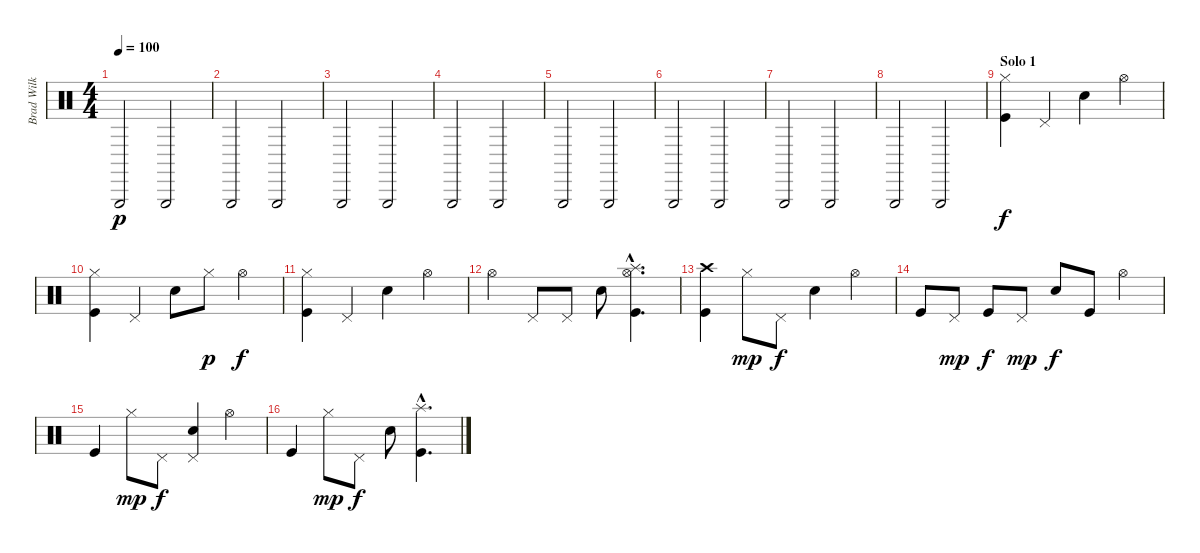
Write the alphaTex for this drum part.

\track ("Brad Wilk - Drums" "Brad Wilk ") {instrument percussion}
\staff {score}
\articulation defaults
\ts (4 4)
\tempo 100
\clef neutral
\ks c "Triangle (hit)".2{dy p} "Triangle (hit)".2
|
"Triangle (hit)".2 "Triangle (hit)".2 |
"Triangle (hit)".2 "Triangle (hit)".2 |
"Triangle (hit)".2 "Triangle (hit)".2 |
"Triangle (hit)".2 "Triangle (hit)".2 |
"Triangle (hit)".2 "Triangle (hit)".2 |
"Triangle (hit)".2 "Triangle (hit)".2 |
"Triangle (hit)".2 "Triangle (hit)".2 |
\section ("" "Solo 1")
("Hi-Hat (closed)" "Kick (hit)").4{dy f} "Pedal Hi-Hat (hit)".4 "Electric Snare (hit)".4 "Hi-Hat (open)".4 |
("Hi-Hat (closed)" "Kick (hit)").4 "Pedal Hi-Hat (hit)".4 "Electric Snare (hit)".8 "Hi-Hat (closed)".8{dy p} "Hi-Hat (open)".4{dy f} |
("Hi-Hat (closed)" "Kick (hit)").4 "Pedal Hi-Hat (hit)".4 "Electric Snare (hit)".4 "Hi-Hat (open)".4 |
"Hi-Hat (open)".4 "Pedal Hi-Hat (hit)".8 "Pedal Hi-Hat (hit)".8 "Electric Snare (hit)".8 ("Hi-Hat (open)"{hac} "Kick (hit)"{hac} "Splash (hit)"{hac}).4{d} |
("Crash high (hit)" "Kick (hit)").4 "Hi-Hat (closed)".8{dy mp} "Pedal Hi-Hat (hit)".8{dy f} "Electric Snare (hit)".4 "Hi-Hat (open)".4 |
"Kick (hit)".8 "Pedal Hi-Hat (hit)".8{dy mp} "Kick (hit)".8{dy f} "Pedal Hi-Hat (hit)".8{dy mp} "Electric Snare (hit)".8{dy f} "Kick (hit)".8 "Hi-Hat (open)".4 |
"Kick (hit)".4 "Hi-Hat (closed)".8{dy mp} "Pedal Hi-Hat (hit)".8{dy f} ("Pedal Hi-Hat (hit)" "Electric Snare (hit)").4 "Hi-Hat (open)".4 |
"Kick (hit)".4 "Hi-Hat (closed)".8{dy mp} "Pedal Hi-Hat (hit)".8{dy f} "Electric Snare (hit)".8 ("Splash (hit)"{hac} "Kick (hit)"{hac}).4{d}
